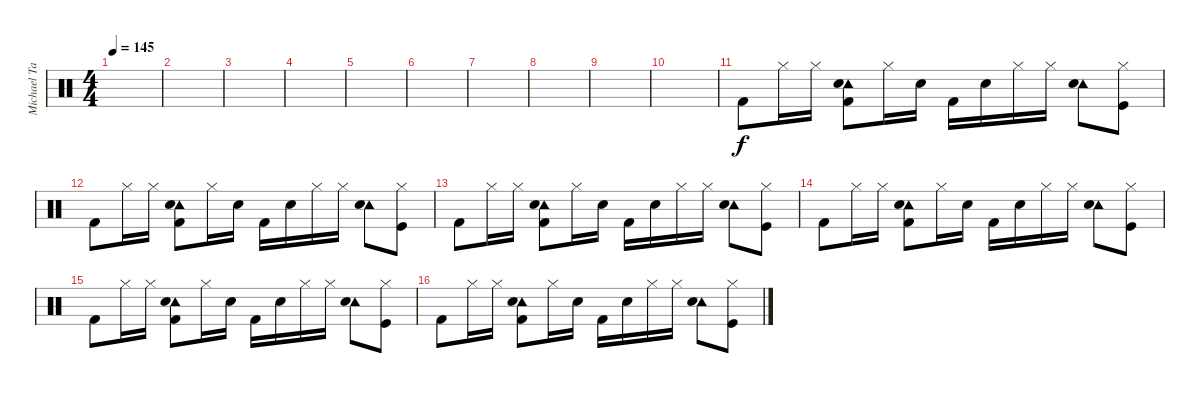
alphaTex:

\track ("Michael Tapper - Drums" "Michael Ta") {instrument percussion}
\staff {score}
\articulation defaults
\ts (4 4)
\tempo 145
\clef neutral
\ks c
|
|
|
|
|
|
|
|
|
|
"Kick (hit) 2".8 "Hi-Hat (closed)".16 "Hi-Hat (closed)".16 ("Tambourine (hit)" "Electric Snare (hit)" "Kick (hit) 2").8 "Hi-Hat (closed)".16 "Electric Snare (hit)".16 "Kick (hit) 2".16 "Electric Snare (hit)".16 "Hi-Hat (closed)".16 "Hi-Hat (closed)".16 ("Tambourine (hit)" "Electric Snare (hit)").8 ("Hi-Hat (closed)" "Kick (hit)").8 |
"Kick (hit) 2".8 "Hi-Hat (closed)".16 "Hi-Hat (closed)".16 ("Tambourine (hit)" "Electric Snare (hit)" "Kick (hit) 2").8 "Hi-Hat (closed)".16 "Electric Snare (hit)".16 "Kick (hit) 2".16 "Electric Snare (hit)".16 "Hi-Hat (closed)".16 "Hi-Hat (closed)".16 ("Tambourine (hit)" "Electric Snare (hit)").8 ("Hi-Hat (closed)" "Kick (hit)").8 |
"Kick (hit) 2".8 "Hi-Hat (closed)".16 "Hi-Hat (closed)".16 ("Tambourine (hit)" "Electric Snare (hit)" "Kick (hit) 2").8 "Hi-Hat (closed)".16 "Electric Snare (hit)".16 "Kick (hit) 2".16 "Electric Snare (hit)".16 "Hi-Hat (closed)".16 "Hi-Hat (closed)".16 ("Tambourine (hit)" "Electric Snare (hit)").8 ("Hi-Hat (closed)" "Kick (hit)").8 |
"Kick (hit) 2".8 "Hi-Hat (closed)".16 "Hi-Hat (closed)".16 ("Tambourine (hit)" "Electric Snare (hit)" "Kick (hit) 2").8 "Hi-Hat (closed)".16 "Electric Snare (hit)".16 "Kick (hit) 2".16 "Electric Snare (hit)".16 "Hi-Hat (closed)".16 "Hi-Hat (closed)".16 ("Tambourine (hit)" "Electric Snare (hit)").8 ("Hi-Hat (closed)" "Kick (hit)").8 |
"Kick (hit) 2".8 "Hi-Hat (closed)".16 "Hi-Hat (closed)".16 ("Tambourine (hit)" "Electric Snare (hit)" "Kick (hit) 2").8 "Hi-Hat (closed)".16 "Electric Snare (hit)".16 "Kick (hit) 2".16 "Electric Snare (hit)".16 "Hi-Hat (closed)".16 "Hi-Hat (closed)".16 ("Tambourine (hit)" "Electric Snare (hit)").8 ("Hi-Hat (closed)" "Kick (hit)").8 |
"Kick (hit) 2".8 "Hi-Hat (closed)".16 "Hi-Hat (closed)".16 ("Tambourine (hit)" "Electric Snare (hit)" "Kick (hit) 2").8 "Hi-Hat (closed)".16 "Electric Snare (hit)".16 "Kick (hit) 2".16 "Electric Snare (hit)".16 "Hi-Hat (closed)".16 "Hi-Hat (closed)".16 ("Tambourine (hit)" "Electric Snare (hit)").8 ("Hi-Hat (closed)" "Kick (hit)").8
